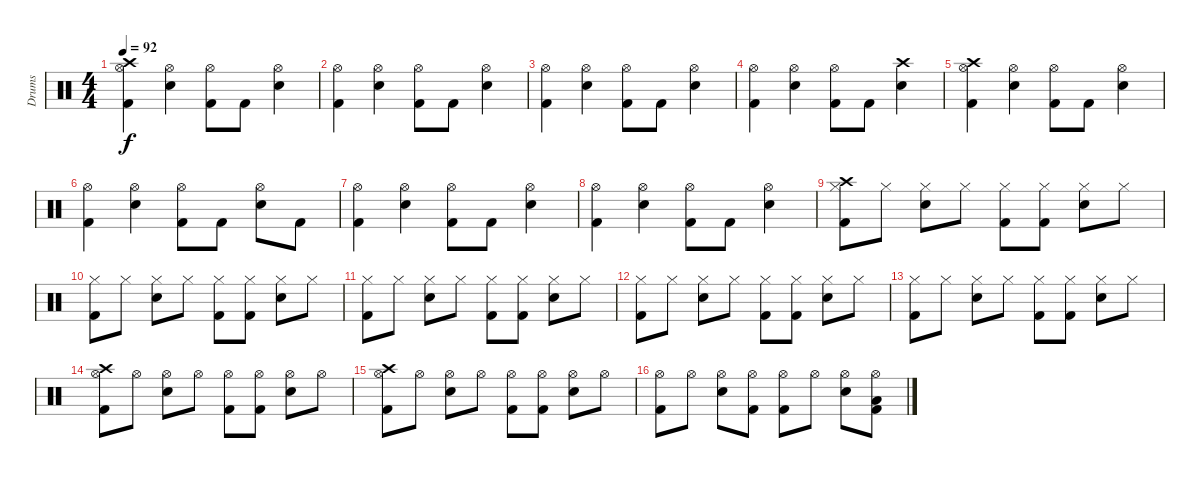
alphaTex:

\track ("Drums" "Drums") {instrument percussion}
\staff {score}
\articulation defaults
\ts (4 4)
\tempo 92
\clef neutral
\ks c
("Kick (hit) 2" "Hi-Hat (open)" "Crash high (hit)").4{dy f} ("Electric Snare (hit)" "Hi-Hat (open)").4 ("Kick (hit) 2" "Hi-Hat (open)").8 "Kick (hit) 2".8 ("Electric Snare (hit)" "Hi-Hat (open)").4 |
("Kick (hit) 2" "Hi-Hat (open)").4 ("Electric Snare (hit)" "Hi-Hat (open)").4 ("Kick (hit) 2" "Hi-Hat (open)").8 "Kick (hit) 2".8 ("Electric Snare (hit)" "Hi-Hat (open)").4 |
("Kick (hit) 2" "Hi-Hat (open)").4 ("Electric Snare (hit)" "Hi-Hat (open)").4 ("Kick (hit) 2" "Hi-Hat (open)").8 "Kick (hit) 2".8 ("Electric Snare (hit)" "Hi-Hat (open)").4 |
("Kick (hit) 2" "Hi-Hat (open)").4 ("Electric Snare (hit)" "Hi-Hat (open)").4 ("Kick (hit) 2" "Hi-Hat (open)").8 "Kick (hit) 2".8 ("Electric Snare (hit)" "Crash high (hit)").4 |
("Kick (hit) 2" "Hi-Hat (open)" "Crash high (hit)").4 ("Electric Snare (hit)" "Hi-Hat (open)").4 ("Kick (hit) 2" "Hi-Hat (open)").8 "Kick (hit) 2".8 ("Electric Snare (hit)" "Hi-Hat (open)").4 |
("Kick (hit) 2" "Hi-Hat (open)").4 ("Electric Snare (hit)" "Hi-Hat (open)").4 ("Kick (hit) 2" "Hi-Hat (open)").8 "Kick (hit) 2".8 ("Electric Snare (hit)" "Hi-Hat (open)").8 "Kick (hit) 2".8 |
("Kick (hit) 2" "Hi-Hat (open)").4 ("Electric Snare (hit)" "Hi-Hat (open)").4 ("Kick (hit) 2" "Hi-Hat (open)").8 "Kick (hit) 2".8 ("Electric Snare (hit)" "Hi-Hat (open)").4 |
("Kick (hit) 2" "Hi-Hat (open)").4 ("Electric Snare (hit)" "Hi-Hat (open)").4 ("Kick (hit) 2" "Hi-Hat (open)").8 "Kick (hit) 2".8 ("Electric Snare (hit)" "Hi-Hat (open)").4 |
("Kick (hit) 2" "Hi-Hat (closed)" "Crash high (hit)").8 "Hi-Hat (closed)".8 ("Electric Snare (hit)" "Hi-Hat (closed)").8 "Hi-Hat (closed)".8 ("Kick (hit) 2" "Hi-Hat (closed)").8 ("Kick (hit) 2" "Hi-Hat (closed)").8 ("Electric Snare (hit)" "Hi-Hat (closed)").8 "Hi-Hat (closed)".8 |
("Kick (hit) 2" "Hi-Hat (closed)").8 "Hi-Hat (closed)".8 ("Electric Snare (hit)" "Hi-Hat (closed)").8 "Hi-Hat (closed)".8 ("Kick (hit) 2" "Hi-Hat (closed)").8 ("Kick (hit) 2" "Hi-Hat (closed)").8 ("Electric Snare (hit)" "Hi-Hat (closed)").8 "Hi-Hat (closed)".8 |
("Kick (hit) 2" "Hi-Hat (closed)").8 "Hi-Hat (closed)".8 ("Electric Snare (hit)" "Hi-Hat (closed)").8 "Hi-Hat (closed)".8 ("Kick (hit) 2" "Hi-Hat (closed)").8 ("Kick (hit) 2" "Hi-Hat (closed)").8 ("Electric Snare (hit)" "Hi-Hat (closed)").8 "Hi-Hat (closed)".8 |
("Kick (hit) 2" "Hi-Hat (closed)").8 "Hi-Hat (closed)".8 ("Electric Snare (hit)" "Hi-Hat (closed)").8 "Hi-Hat (closed)".8 ("Kick (hit) 2" "Hi-Hat (closed)").8 ("Kick (hit) 2" "Hi-Hat (closed)").8 ("Electric Snare (hit)" "Hi-Hat (closed)").8 "Hi-Hat (closed)".8 |
("Kick (hit) 2" "Hi-Hat (closed)").8 "Hi-Hat (closed)".8 ("Electric Snare (hit)" "Hi-Hat (closed)").8 "Hi-Hat (closed)".8 ("Kick (hit) 2" "Hi-Hat (closed)").8 ("Kick (hit) 2" "Hi-Hat (closed)").8 ("Electric Snare (hit)" "Hi-Hat (closed)").8 "Hi-Hat (closed)".8 |
("Kick (hit) 2" "Hi-Hat (open)" "Crash high (hit)").8 "Hi-Hat (open)".8 ("Electric Snare (hit)" "Hi-Hat (open)").8 "Hi-Hat (open)".8 ("Kick (hit) 2" "Hi-Hat (open)").8 ("Kick (hit) 2" "Hi-Hat (open)").8 ("Electric Snare (hit)" "Hi-Hat (open)").8 "Hi-Hat (open)".8 |
("Kick (hit) 2" "Hi-Hat (open)" "Crash high (hit)").8 "Hi-Hat (open)".8 ("Electric Snare (hit)" "Hi-Hat (open)").8 "Hi-Hat (open)".8 ("Kick (hit) 2" "Hi-Hat (open)").8 ("Kick (hit) 2" "Hi-Hat (open)").8 ("Electric Snare (hit)" "Hi-Hat (open)").8 "Hi-Hat (open)".8 |
("Kick (hit) 2" "Hi-Hat (open)").8 "Hi-Hat (open)".8 ("Electric Snare (hit)" "Hi-Hat (open)").8 ("Kick (hit) 2" "Hi-Hat (open)").8 ("Kick (hit) 2" "Hi-Hat (open)").8 "Hi-Hat (open)".8 ("Electric Snare (hit)" "Hi-Hat (open)").8 ("Kick (hit) 2" "Hi-Hat (open)" "Low Tom (hit)").8
